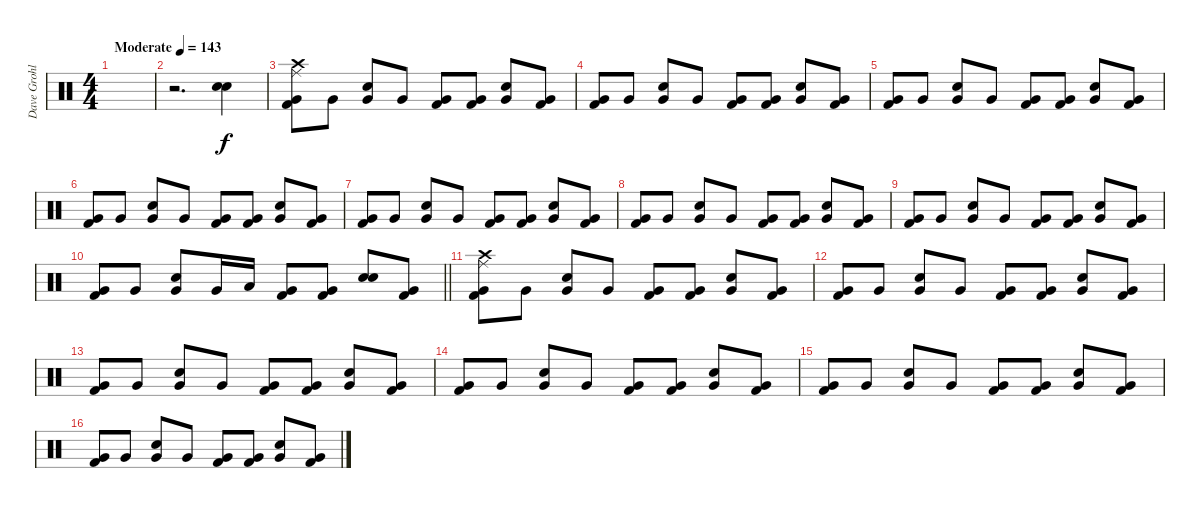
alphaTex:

\track ("Dave Grohl" "Dave Grohl") {instrument percussion}
\staff {score}
\articulation defaults
\ts (4 4)
\tempo (143 "Moderate")
\clef neutral
\ks c
|
r.2{d} ("Snare (hit) 2" "Snare (hit) 2").4{bd 240} |
("Crash high (hit)" "Ride (middle)" "Very Low Tom (hit)" "Kick (hit) 2").8 "Very Low Tom (hit)".8 ("Very Low Tom (hit)" "Snare (hit) 2").8 "Very Low Tom (hit)".8 ("Very Low Tom (hit)" "Kick (hit) 2").8 ("Very Low Tom (hit)" "Kick (hit) 2").8 ("Very Low Tom (hit)" "Snare (hit) 2").8 ("Very Low Tom (hit)" "Kick (hit) 2").8 |
("Very Low Tom (hit)" "Kick (hit) 2").8 "Very Low Tom (hit)".8 ("Very Low Tom (hit)" "Snare (hit) 2").8 "Very Low Tom (hit)".8 ("Very Low Tom (hit)" "Kick (hit) 2").8 ("Very Low Tom (hit)" "Kick (hit) 2").8 ("Very Low Tom (hit)" "Snare (hit) 2").8 ("Very Low Tom (hit)" "Kick (hit) 2").8 |
("Very Low Tom (hit)" "Kick (hit) 2").8 "Very Low Tom (hit)".8 ("Very Low Tom (hit)" "Snare (hit) 2").8 "Very Low Tom (hit)".8 ("Very Low Tom (hit)" "Kick (hit) 2").8 ("Very Low Tom (hit)" "Kick (hit) 2").8 ("Very Low Tom (hit)" "Snare (hit) 2").8 ("Very Low Tom (hit)" "Kick (hit) 2").8 |
("Very Low Tom (hit)" "Kick (hit) 2").8 "Very Low Tom (hit)".8 ("Very Low Tom (hit)" "Snare (hit) 2").8 "Very Low Tom (hit)".8 ("Very Low Tom (hit)" "Kick (hit) 2").8 ("Very Low Tom (hit)" "Kick (hit) 2").8 ("Very Low Tom (hit)" "Snare (hit) 2").8 ("Very Low Tom (hit)" "Kick (hit) 2").8 |
("Very Low Tom (hit)" "Kick (hit) 2").8 "Very Low Tom (hit)".8 ("Very Low Tom (hit)" "Snare (hit) 2").8 "Very Low Tom (hit)".8 ("Very Low Tom (hit)" "Kick (hit) 2").8 ("Very Low Tom (hit)" "Kick (hit) 2").8 ("Very Low Tom (hit)" "Snare (hit) 2").8 ("Very Low Tom (hit)" "Kick (hit) 2").8 |
("Very Low Tom (hit)" "Kick (hit) 2").8 "Very Low Tom (hit)".8 ("Very Low Tom (hit)" "Snare (hit) 2").8 "Very Low Tom (hit)".8 ("Very Low Tom (hit)" "Kick (hit) 2").8 ("Very Low Tom (hit)" "Kick (hit) 2").8 ("Very Low Tom (hit)" "Snare (hit) 2").8 ("Very Low Tom (hit)" "Kick (hit) 2").8 |
("Very Low Tom (hit)" "Kick (hit) 2").8 "Very Low Tom (hit)".8 ("Very Low Tom (hit)" "Snare (hit) 2").8 "Very Low Tom (hit)".8 ("Very Low Tom (hit)" "Kick (hit) 2").8 ("Very Low Tom (hit)" "Kick (hit) 2").8 ("Very Low Tom (hit)" "Snare (hit) 2").8 ("Very Low Tom (hit)" "Kick (hit) 2").8 |
\barLineRight lightlight
("Very Low Tom (hit)" "Kick (hit) 2").8 "Very Low Tom (hit)".8 ("Very Low Tom (hit)" "Snare (hit) 2").8 "Very Low Tom (hit)".16 "Low Tom (hit)".16 ("Very Low Tom (hit)" "Kick (hit) 2").8 ("Very Low Tom (hit)" "Kick (hit) 2").8 ("Snare (hit) 2" "Snare (hit) 2").8{bd 120} ("Very Low Tom (hit)" "Kick (hit) 2").8 |
("Crash high (hit)" "Ride (middle)" "Very Low Tom (hit)" "Kick (hit) 2").8 "Very Low Tom (hit)".8 ("Very Low Tom (hit)" "Snare (hit) 2").8 "Very Low Tom (hit)".8 ("Very Low Tom (hit)" "Kick (hit) 2").8 ("Very Low Tom (hit)" "Kick (hit) 2").8 ("Very Low Tom (hit)" "Snare (hit) 2").8 ("Very Low Tom (hit)" "Kick (hit) 2").8 |
("Very Low Tom (hit)" "Kick (hit) 2").8 "Very Low Tom (hit)".8 ("Very Low Tom (hit)" "Snare (hit) 2").8 "Very Low Tom (hit)".8 ("Very Low Tom (hit)" "Kick (hit) 2").8 ("Very Low Tom (hit)" "Kick (hit) 2").8 ("Very Low Tom (hit)" "Snare (hit) 2").8 ("Very Low Tom (hit)" "Kick (hit) 2").8 |
("Very Low Tom (hit)" "Kick (hit) 2").8 "Very Low Tom (hit)".8 ("Very Low Tom (hit)" "Snare (hit) 2").8 "Very Low Tom (hit)".8 ("Very Low Tom (hit)" "Kick (hit) 2").8 ("Very Low Tom (hit)" "Kick (hit) 2").8 ("Very Low Tom (hit)" "Snare (hit) 2").8 ("Very Low Tom (hit)" "Kick (hit) 2").8 |
("Very Low Tom (hit)" "Kick (hit) 2").8 "Very Low Tom (hit)".8 ("Very Low Tom (hit)" "Snare (hit) 2").8 "Very Low Tom (hit)".8 ("Very Low Tom (hit)" "Kick (hit) 2").8 ("Very Low Tom (hit)" "Kick (hit) 2").8 ("Very Low Tom (hit)" "Snare (hit) 2").8 ("Very Low Tom (hit)" "Kick (hit) 2").8 |
("Very Low Tom (hit)" "Kick (hit) 2").8 "Very Low Tom (hit)".8 ("Very Low Tom (hit)" "Snare (hit) 2").8 "Very Low Tom (hit)".8 ("Very Low Tom (hit)" "Kick (hit) 2").8 ("Very Low Tom (hit)" "Kick (hit) 2").8 ("Very Low Tom (hit)" "Snare (hit) 2").8 ("Very Low Tom (hit)" "Kick (hit) 2").8 |
("Very Low Tom (hit)" "Kick (hit) 2").8 "Very Low Tom (hit)".8 ("Very Low Tom (hit)" "Snare (hit) 2").8 "Very Low Tom (hit)".8 ("Very Low Tom (hit)" "Kick (hit) 2").8 ("Very Low Tom (hit)" "Kick (hit) 2").8 ("Very Low Tom (hit)" "Snare (hit) 2").8 ("Very Low Tom (hit)" "Kick (hit) 2").8
